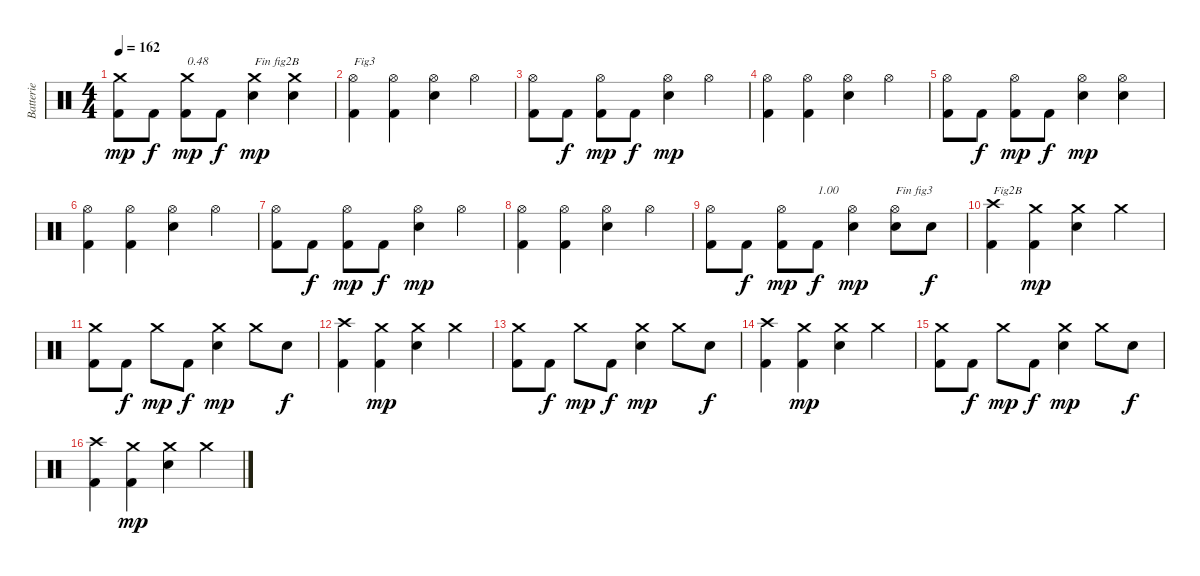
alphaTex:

\track ("Batterie" "Batterie") {instrument percussion}
\staff {score}
\articulation defaults
\ts (4 4)
\tempo 162
\clef neutral
\ks c
("Kick (hit) 2" "Crash medium (hit)").8{dy mp} "Kick (hit) 2".8{dy f} ("Kick (hit) 2" "Crash medium (hit)").8{txt "0.48" dy mp} "Kick (hit) 2".8{dy f} ("Electric Snare (hit)" "Crash medium (hit)").4{txt "Fin fig2B" dy mp} ("Electric Snare (hit)" "Crash medium (hit)").4 |
("Kick (hit) 2" "Hi-Hat (open)").4{txt "Fig3"} ("Kick (hit) 2" "Hi-Hat (open)").4 ("Electric Snare (hit)" "Hi-Hat (open)").4 "Hi-Hat (open)".4 |
("Kick (hit) 2" "Hi-Hat (open)").8 "Kick (hit) 2".8{dy f} ("Kick (hit) 2" "Hi-Hat (open)").8{dy mp} "Kick (hit) 2".8{dy f} ("Electric Snare (hit)" "Hi-Hat (open)").4{dy mp} "Hi-Hat (open)".4 |
("Kick (hit) 2" "Hi-Hat (open)").4 ("Kick (hit) 2" "Hi-Hat (open)").4 ("Electric Snare (hit)" "Hi-Hat (open)").4 "Hi-Hat (open)".4 |
("Kick (hit) 2" "Hi-Hat (open)").8 "Kick (hit) 2".8{dy f} ("Kick (hit) 2" "Hi-Hat (open)").8{dy mp} "Kick (hit) 2".8{dy f} ("Electric Snare (hit)" "Hi-Hat (open)").4{dy mp} ("Electric Snare (hit)" "Hi-Hat (open)").4 |
("Kick (hit) 2" "Hi-Hat (open)").4 ("Kick (hit) 2" "Hi-Hat (open)").4 ("Electric Snare (hit)" "Hi-Hat (open)").4 "Hi-Hat (open)".4 |
("Kick (hit) 2" "Hi-Hat (open)").8 "Kick (hit) 2".8{dy f} ("Kick (hit) 2" "Hi-Hat (open)").8{dy mp} "Kick (hit) 2".8{dy f} ("Electric Snare (hit)" "Hi-Hat (open)").4{dy mp} "Hi-Hat (open)".4 |
("Kick (hit) 2" "Hi-Hat (open)").4 ("Kick (hit) 2" "Hi-Hat (open)").4 ("Electric Snare (hit)" "Hi-Hat (open)").4 "Hi-Hat (open)".4 |
("Kick (hit) 2" "Hi-Hat (open)").8 "Kick (hit) 2".8{dy f} ("Kick (hit) 2" "Hi-Hat (open)").8{dy mp} "Kick (hit) 2".8{txt "1.00" dy f} ("Electric Snare (hit)" "Hi-Hat (open)").4{dy mp} ("Electric Snare (hit)" "Hi-Hat (open)").8{txt "Fin fig3"} "Electric Snare (hit)".8{dy f} |
("Kick (hit) 2" "Crash high (hit)").4{txt "Fig2B"} ("Kick (hit) 2" "Crash medium (hit)").4{dy mp} ("Electric Snare (hit)" "Crash medium (hit)").4 "Crash medium (hit)".4 |
("Kick (hit) 2" "Crash medium (hit)").8 "Kick (hit) 2".8{dy f} "Crash medium (hit)".8{dy mp} "Kick (hit) 2".8{dy f} ("Electric Snare (hit)" "Crash medium (hit)").4{dy mp} "Crash medium (hit)".8 "Electric Snare (hit)".8{dy f} |
("Kick (hit) 2" "Crash high (hit)").4 ("Kick (hit) 2" "Crash medium (hit)").4{dy mp} ("Electric Snare (hit)" "Crash medium (hit)").4 "Crash medium (hit)".4 |
("Kick (hit) 2" "Crash medium (hit)").8 "Kick (hit) 2".8{dy f} "Crash medium (hit)".8{dy mp} "Kick (hit) 2".8{dy f} ("Electric Snare (hit)" "Crash medium (hit)").4{dy mp} "Crash medium (hit)".8 "Electric Snare (hit)".8{dy f} |
("Kick (hit) 2" "Crash high (hit)").4 ("Kick (hit) 2" "Crash medium (hit)").4{dy mp} ("Electric Snare (hit)" "Crash medium (hit)").4 "Crash medium (hit)".4 |
("Kick (hit) 2" "Crash medium (hit)").8 "Kick (hit) 2".8{dy f} "Crash medium (hit)".8{dy mp} "Kick (hit) 2".8{dy f} ("Electric Snare (hit)" "Crash medium (hit)").4{dy mp} "Crash medium (hit)".8 "Electric Snare (hit)".8{dy f} |
("Kick (hit) 2" "Crash high (hit)").4 ("Kick (hit) 2" "Crash medium (hit)").4{dy mp} ("Electric Snare (hit)" "Crash medium (hit)").4 "Crash medium (hit)".4
